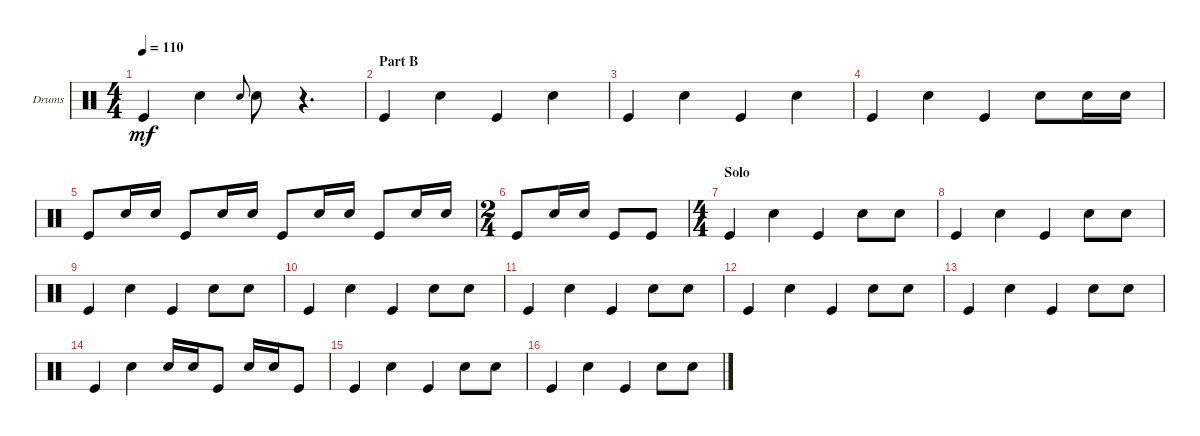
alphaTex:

\defaultSystemsLayout 4
\bracketExtendMode groupsimilarinstruments
\firstSystemTrackNameOrientation horizontal
\otherSystemsTrackNameOrientation horizontal
\track ("Drumkit" "Drums") {instrument percussion}
\staff {score}
\articulation defaults
\ts (4 4)
\tempo 110
\clef neutral
\ks c "Kick (hit)".4{dy mf} "Snare (hit) 2".4 "Snare (hit) 2".8{gr onbeat} "Snare (hit) 2".8
r.4{d} |
\section ("" "Part B")
"Kick (hit)".4 "Snare (hit) 2".4 "Kick (hit)".4 "Snare (hit) 2".4 |
"Kick (hit)".4 "Snare (hit) 2".4 "Kick (hit)".4 "Snare (hit) 2".4 |
"Kick (hit)".4 "Snare (hit) 2".4 "Kick (hit)".4 "Snare (hit) 2".8 "Snare (hit) 2".16 "Snare (hit) 2".16 |
"Kick (hit)".8 "Snare (hit) 2".16 "Snare (hit) 2".16 "Kick (hit)".8 "Snare (hit) 2".16 "Snare (hit) 2".16 "Kick (hit)".8 "Snare (hit) 2".16 "Snare (hit) 2".16 "Kick (hit)".8 "Snare (hit) 2".16 "Snare (hit) 2".16 |
\ts (2 4)
"Kick (hit)".8 "Snare (hit) 2".16 "Snare (hit) 2".16 "Kick (hit)".8 "Kick (hit)".8 |
\ts (4 4)
\section ("" "Solo")
"Kick (hit)".4 "Snare (hit) 2".4 "Kick (hit)".4 "Snare (hit) 2".8 "Snare (hit) 2".8 |
"Kick (hit)".4 "Snare (hit) 2".4 "Kick (hit)".4 "Snare (hit) 2".8 "Snare (hit) 2".8 |
"Kick (hit)".4 "Snare (hit) 2".4 "Kick (hit)".4 "Snare (hit) 2".8 "Snare (hit) 2".8 |
"Kick (hit)".4 "Snare (hit) 2".4 "Kick (hit)".4 "Snare (hit) 2".8 "Snare (hit) 2".8 |
"Kick (hit)".4 "Snare (hit) 2".4 "Kick (hit)".4 "Snare (hit) 2".8 "Snare (hit) 2".8 |
"Kick (hit)".4 "Snare (hit) 2".4 "Kick (hit)".4 "Snare (hit) 2".8 "Snare (hit) 2".8 |
"Kick (hit)".4 "Snare (hit) 2".4 "Kick (hit)".4 "Snare (hit) 2".8 "Snare (hit) 2".8 |
"Kick (hit)".4 "Snare (hit) 2".4 "Snare (hit) 2".16 "Snare (hit) 2".16 "Kick (hit)".8 "Snare (hit) 2".16 "Snare (hit) 2".16 "Kick (hit)".8 |
"Kick (hit)".4 "Snare (hit) 2".4 "Kick (hit)".4 "Snare (hit) 2".8 "Snare (hit) 2".8 |
"Kick (hit)".4 "Snare (hit) 2".4 "Kick (hit)".4 "Snare (hit) 2".8 "Snare (hit) 2".8
